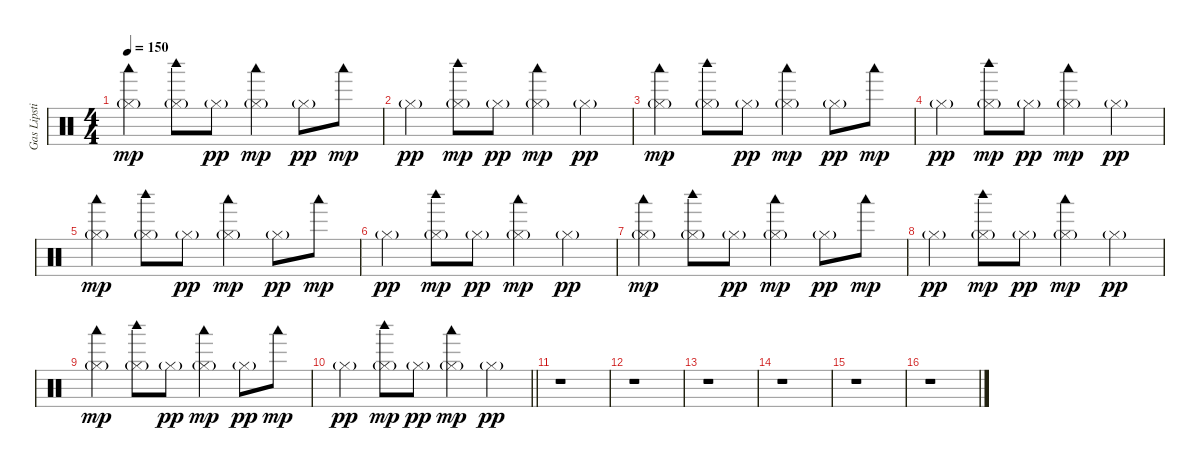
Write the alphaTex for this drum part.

\track ("Gas Lipstick" "Gas Lipsti") {instrument percussion}
\staff {score}
\articulation defaults
\ts (4 4)
\tempo 150
\clef neutral
\ks c
("Hi-Hat (closed)"{g} "Woodblock low (hit)").4{dy mp} ("Hi-Hat (closed)"{g} "Woodblock high (hit)").8 "Hi-Hat (closed)"{g}.8{dy pp} ("Hi-Hat (closed)"{g} "Woodblock low (hit)").4{dy mp} "Hi-Hat (closed)"{g}.8{dy pp} "Woodblock low (hit)".8{dy mp} |
"Hi-Hat (closed)"{g}.4{dy pp} ("Hi-Hat (closed)"{g} "Woodblock high (hit)").8{dy mp} "Hi-Hat (closed)"{g}.8{dy pp} ("Hi-Hat (closed)"{g} "Woodblock low (hit)").4{dy mp} "Hi-Hat (closed)"{g}.4{dy pp} |
("Hi-Hat (closed)"{g} "Woodblock low (hit)").4{dy mp} ("Hi-Hat (closed)"{g} "Woodblock high (hit)").8 "Hi-Hat (closed)"{g}.8{dy pp} ("Hi-Hat (closed)"{g} "Woodblock low (hit)").4{dy mp} "Hi-Hat (closed)"{g}.8{dy pp} "Woodblock low (hit)".8{dy mp} |
"Hi-Hat (closed)"{g}.4{dy pp} ("Hi-Hat (closed)"{g} "Woodblock high (hit)").8{dy mp} "Hi-Hat (closed)"{g}.8{dy pp} ("Hi-Hat (closed)"{g} "Woodblock low (hit)").4{dy mp} "Hi-Hat (closed)"{g}.4{dy pp} |
("Hi-Hat (closed)"{g} "Woodblock low (hit)").4{dy mp} ("Hi-Hat (closed)"{g} "Woodblock high (hit)").8 "Hi-Hat (closed)"{g}.8{dy pp} ("Hi-Hat (closed)"{g} "Woodblock low (hit)").4{dy mp} "Hi-Hat (closed)"{g}.8{dy pp} "Woodblock low (hit)".8{dy mp} |
"Hi-Hat (closed)"{g}.4{dy pp} ("Hi-Hat (closed)"{g} "Woodblock high (hit)").8{dy mp} "Hi-Hat (closed)"{g}.8{dy pp} ("Hi-Hat (closed)"{g} "Woodblock low (hit)").4{dy mp} "Hi-Hat (closed)"{g}.4{dy pp} |
("Hi-Hat (closed)"{g} "Woodblock low (hit)").4{dy mp} ("Hi-Hat (closed)"{g} "Woodblock high (hit)").8 "Hi-Hat (closed)"{g}.8{dy pp} ("Hi-Hat (closed)"{g} "Woodblock low (hit)").4{dy mp} "Hi-Hat (closed)"{g}.8{dy pp} "Woodblock low (hit)".8{dy mp} |
"Hi-Hat (closed)"{g}.4{dy pp} ("Hi-Hat (closed)"{g} "Woodblock high (hit)").8{dy mp} "Hi-Hat (closed)"{g}.8{dy pp} ("Hi-Hat (closed)"{g} "Woodblock low (hit)").4{dy mp} "Hi-Hat (closed)"{g}.4{dy pp} |
("Hi-Hat (closed)"{g} "Woodblock low (hit)").4{dy mp} ("Hi-Hat (closed)"{g} "Woodblock high (hit)").8 "Hi-Hat (closed)"{g}.8{dy pp} ("Hi-Hat (closed)"{g} "Woodblock low (hit)").4{dy mp} "Hi-Hat (closed)"{g}.8{dy pp} "Woodblock low (hit)".8{dy mp} |
\barLineRight lightlight "Hi-Hat (closed)"{g}.4{dy pp}
("Hi-Hat (closed)"{g} "Woodblock high (hit)").8{dy mp} "Hi-Hat (closed)"{g}.8{dy pp} ("Hi-Hat (closed)"{g} "Woodblock low (hit)").4{dy mp} "Hi-Hat (closed)"{g}.4{dy pp} |
r.1 |
r.1 |
r.1 |
r.1 |
r.1 |
r.1
